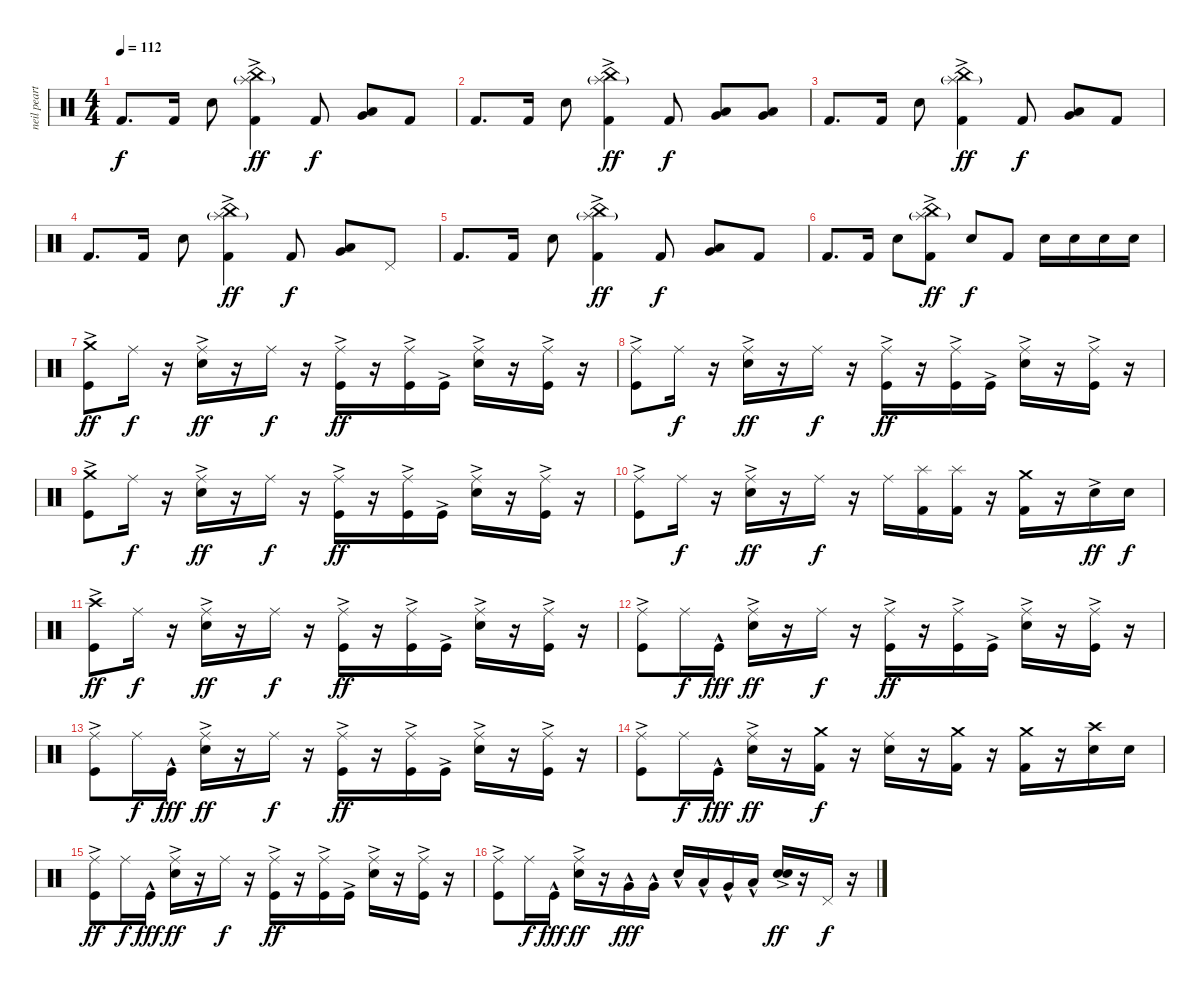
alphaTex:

\track ("neil peart" "neil peart") {instrument percussion}
\staff {score}
\articulation defaults
\ts (4 4)
\tempo 112
\clef neutral
\ks c "Kick (hit) 2".8{d dy f} "Kick (hit) 2".16 "Electric Snare (hit)".8
("Splash (hit)"{g} "China (hit)" "Kick (hit) 2"{ac}).4{dy ff} "Kick (hit) 2".8{dy f} ("Very Low Tom (hit)" "Low Floor Tom (hit)").8 "Kick (hit) 2".8 |
"Kick (hit) 2".8{d} "Kick (hit) 2".16 "Electric Snare (hit)".8 ("Splash (hit)"{g} "China (hit)" "Kick (hit) 2"{ac}).4{dy ff} "Kick (hit) 2".8{dy f} ("Low Tom (hit)" "Very Low Tom (hit)").8 ("Very Low Tom (hit)" "Low Floor Tom (hit)").8 |
"Kick (hit) 2".8{d} "Kick (hit) 2".16 "Electric Snare (hit)".8 ("Splash (hit)"{g} "China (hit)" "Kick (hit) 2"{ac}).4{dy ff} "Kick (hit) 2".8{dy f} ("Very Low Tom (hit)" "Low Floor Tom (hit)").8 "Kick (hit) 2".8 |
"Kick (hit) 2".8{d} "Kick (hit) 2".16 "Electric Snare (hit)".8 ("Splash (hit)"{g} "China (hit)" "Kick (hit) 2"{ac}).4{dy ff} "Kick (hit) 2".8{dy f} ("Very Low Tom (hit)" "Low Floor Tom (hit)").8 "Pedal Hi-Hat (hit)".8 |
"Kick (hit) 2".8{d} "Kick (hit) 2".16 "Electric Snare (hit)".8 ("Splash (hit)"{g} "China (hit)" "Kick (hit) 2"{ac}).4{dy ff} "Kick (hit) 2".8{dy f} ("Very Low Tom (hit)" "Low Floor Tom (hit)").8 "Kick (hit) 2".8 |
"Kick (hit) 2".8{d} "Kick (hit) 2".16 "Electric Snare (hit)".8 ("Splash (hit)"{g} "China (hit)" "Kick (hit) 2"{ac}).8{dy ff} "Electric Snare (hit)".8{dy f} "Kick (hit) 2".8 "Electric Snare (hit)".16 "Electric Snare (hit)".16 "Electric Snare (hit)".16 "Electric Snare (hit)".16 |
("Crash medium (hit)" "Kick (hit)"{ac}).8{dy ff} "Ride (middle)".16{dy f} r.16 ("Ride (middle)" "Electric Snare (hit)"{ac}).16{dy ff} r.16 "Ride (middle)".16{dy f} r.16 ("Ride (middle)" "Kick (hit)"{ac}).16{dy ff} r.16 ("Ride (middle)" "Kick (hit)"{ac}).16 "Kick (hit)"{ac}.16 ("Ride (middle)" "Electric Snare (hit)"{ac}).16 r.16 ("Ride (middle)" "Kick (hit)"{ac}).16 r.16 |
("Ride (middle)" "Kick (hit)"{ac}).8 "Ride (middle)".16{dy f} r.16 ("Ride (middle)" "Electric Snare (hit)"{ac}).16{dy ff} r.16 "Ride (middle)".16{dy f} r.16 ("Ride (middle)" "Kick (hit)"{ac}).16{dy ff} r.16 ("Ride (middle)" "Kick (hit)"{ac}).16 "Kick (hit)"{ac}.16 ("Ride (middle)" "Electric Snare (hit)"{ac}).16 r.16 ("Ride (middle)" "Kick (hit)"{ac}).16 r.16 |
("Crash medium (hit)" "Kick (hit)"{ac}).8 "Ride (middle)".16{dy f} r.16 ("Ride (middle)" "Electric Snare (hit)"{ac}).16{dy ff} r.16 "Ride (middle)".16{dy f} r.16 ("Ride (middle)" "Kick (hit)"{ac}).16{dy ff} r.16 ("Ride (middle)" "Kick (hit)"{ac}).16 "Kick (hit)"{ac}.16 ("Ride (middle)" "Electric Snare (hit)"{ac}).16 r.16 ("Ride (middle)" "Kick (hit)"{ac}).16 r.16 |
("Ride (middle)" "Kick (hit)"{ac}).8 "Ride (middle)".16{dy f} r.16 ("Ride (middle)" "Electric Snare (hit)"{ac}).16{dy ff} r.16 "Ride (middle)".16{dy f} r.16 "Ride (middle)".16 ("Splash (hit)" "Kick (hit) 2").16 ("Splash (hit)" "Kick (hit) 2").16 r.16 ("Crash medium (hit)" "Kick (hit) 2").16 r.16 "Electric Snare (hit)"{ac}.16{dy ff} "Electric Snare (hit)".16{dy f} |
("Crash high (hit)" "Kick (hit)"{ac}).8{dy ff} "Ride (middle)".16{dy f} r.16 ("Ride (middle)" "Electric Snare (hit)"{ac}).16{dy ff} r.16 "Ride (middle)".16{dy f} r.16 ("Ride (middle)" "Kick (hit)"{ac}).16{dy ff} r.16 ("Ride (middle)" "Kick (hit)"{ac}).16 "Kick (hit)"{ac}.16 ("Ride (middle)" "Electric Snare (hit)"{ac}).16 r.16 ("Ride (middle)" "Kick (hit)"{ac}).16 r.16 |
("Ride (middle)" "Kick (hit)"{ac}).8 "Ride (middle)".16{dy f} "Kick (hit)"{hac}.16{dy fff} ("Ride (middle)" "Electric Snare (hit)"{ac}).16{dy ff} r.16 "Ride (middle)".16{dy f} r.16 ("Ride (middle)" "Kick (hit)"{ac}).16{dy ff} r.16 ("Ride (middle)" "Kick (hit)"{ac}).16 "Kick (hit)"{ac}.16 ("Ride (middle)" "Electric Snare (hit)"{ac}).16 r.16 ("Ride (middle)" "Kick (hit)"{ac}).16 r.16 |
("Ride (middle)" "Kick (hit)"{ac}).8 "Ride (middle)".16{dy f} "Kick (hit)"{hac}.16{dy fff} ("Ride (middle)" "Electric Snare (hit)"{ac}).16{dy ff} r.16 "Ride (middle)".16{dy f} r.16 ("Ride (middle)" "Kick (hit)"{ac}).16{dy ff} r.16 ("Ride (middle)" "Kick (hit)"{ac}).16 "Kick (hit)"{ac}.16 ("Ride (middle)" "Electric Snare (hit)"{ac}).16 r.16 ("Ride (middle)" "Kick (hit)"{ac}).16 r.16 |
("Ride (middle)" "Kick (hit)"{ac}).8 "Ride (middle)".16{dy f} "Kick (hit)"{hac}.16{dy fff} ("Ride (middle)" "Electric Snare (hit)"{ac}).16{dy ff} r.16 ("Crash medium (hit)" "Kick (hit) 2").16{dy f} r.16 ("Ride (middle)" "Electric Snare (hit)").16 r.16 ("Crash medium (hit)" "Kick (hit) 2").16 r.16 ("Crash medium (hit)" "Kick (hit) 2").16 r.16 ("Crash high (hit)" "Electric Snare (hit)").16 "Electric Snare (hit)".16 |
("Ride (middle)" "Kick (hit)"{ac}).8{dy ff} "Ride (middle)".16{dy f} "Kick (hit)"{hac}.16{dy fff} ("Ride (middle)" "Electric Snare (hit)"{ac}).16{dy ff} r.16 "Ride (middle)".16{dy f} r.16 ("Ride (middle)" "Kick (hit)"{ac}).16{dy ff} r.16 ("Ride (middle)" "Kick (hit)"{ac}).16 "Kick (hit)"{ac}.16 ("Ride (middle)" "Electric Snare (hit)"{ac}).16 r.16 ("Ride (middle)" "Kick (hit)"{ac}).16 r.16 |
("Ride (middle)" "Kick (hit)"{ac}).8 "Ride (middle)".16{dy f} "Kick (hit)"{hac}.16{dy fff} ("Ride (middle)" "Electric Snare (hit)"{ac}).16{dy ff} r.16 "Very Low Tom (hit)"{hac}.16{dy fff} "Very Low Tom (hit)"{hac}.16 "Electric Snare (hit)"{hac}.16 "Low Tom (hit)"{hac}.16 "Very Low Tom (hit)"{hac}.16 "Low Floor Tom (hit)"{hac}.16 ("Electric Snare (hit)" "Electric Snare (hit)"{ac}).16{dy ff} r.16 "Pedal Hi-Hat (hit)".16{dy f} r.16
